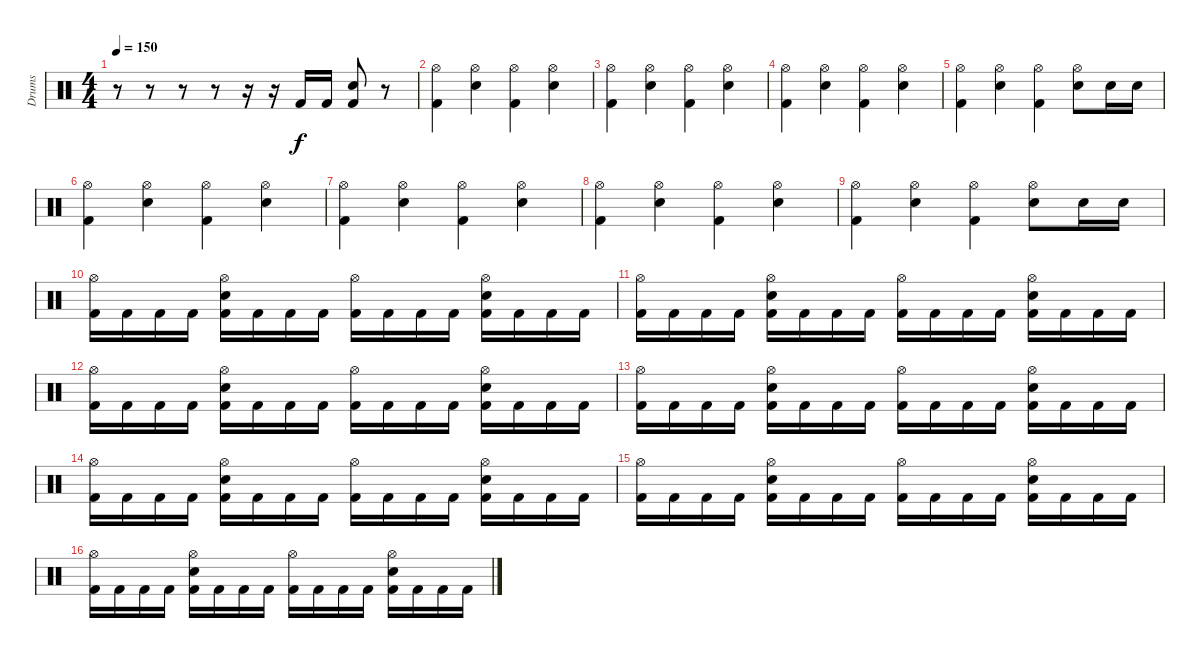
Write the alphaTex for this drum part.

\track ("Drums" "Drums") {instrument percussion}
\staff {score}
\articulation defaults
\ts (4 4)
\tempo 150
\clef neutral
\ks c
r.8{dy f} r.8 r.8 r.8 r.16 r.16 "Kick (hit) 2".16 "Kick (hit) 2".16 ("Snare (hit) 2" "Kick (hit) 2").8 r.8 |
("Hi-Hat (open)" "Kick (hit) 2").4 ("Hi-Hat (open)" "Snare (hit) 2").4 ("Hi-Hat (open)" "Kick (hit) 2").4 ("Hi-Hat (open)" "Snare (hit) 2").4 |
("Hi-Hat (open)" "Kick (hit) 2").4 ("Hi-Hat (open)" "Snare (hit) 2").4 ("Hi-Hat (open)" "Kick (hit) 2").4 ("Hi-Hat (open)" "Snare (hit) 2").4 |
("Hi-Hat (open)" "Kick (hit) 2").4 ("Hi-Hat (open)" "Snare (hit) 2").4 ("Hi-Hat (open)" "Kick (hit) 2").4 ("Hi-Hat (open)" "Snare (hit) 2").4 |
("Hi-Hat (open)" "Kick (hit) 2").4 ("Hi-Hat (open)" "Snare (hit) 2").4 ("Hi-Hat (open)" "Kick (hit) 2").4 ("Hi-Hat (open)" "Snare (hit) 2").8 "Snare (hit) 2".16 "Snare (hit) 2".16 |
("Hi-Hat (open)" "Kick (hit) 2").4 ("Hi-Hat (open)" "Snare (hit) 2").4 ("Hi-Hat (open)" "Kick (hit) 2").4 ("Hi-Hat (open)" "Snare (hit) 2").4 |
("Hi-Hat (open)" "Kick (hit) 2").4 ("Hi-Hat (open)" "Snare (hit) 2").4 ("Hi-Hat (open)" "Kick (hit) 2").4 ("Hi-Hat (open)" "Snare (hit) 2").4 |
("Hi-Hat (open)" "Kick (hit) 2").4 ("Hi-Hat (open)" "Snare (hit) 2").4 ("Hi-Hat (open)" "Kick (hit) 2").4 ("Hi-Hat (open)" "Snare (hit) 2").4 |
("Hi-Hat (open)" "Kick (hit) 2").4 ("Hi-Hat (open)" "Snare (hit) 2").4 ("Hi-Hat (open)" "Kick (hit) 2").4 ("Hi-Hat (open)" "Snare (hit) 2").8 "Snare (hit) 2".16 "Snare (hit) 2".16 |
("Hi-Hat (open)" "Kick (hit) 2").16 "Kick (hit) 2".16 "Kick (hit) 2".16 "Kick (hit) 2".16 ("Snare (hit) 2" "Hi-Hat (open)" "Kick (hit) 2").16 "Kick (hit) 2".16 "Kick (hit) 2".16 "Kick (hit) 2".16 ("Hi-Hat (open)" "Kick (hit) 2").16 "Kick (hit) 2".16 "Kick (hit) 2".16 "Kick (hit) 2".16 ("Snare (hit) 2" "Hi-Hat (open)" "Kick (hit) 2").16 "Kick (hit) 2".16 "Kick (hit) 2".16 "Kick (hit) 2".16 |
("Hi-Hat (open)" "Kick (hit) 2").16 "Kick (hit) 2".16 "Kick (hit) 2".16 "Kick (hit) 2".16 ("Snare (hit) 2" "Hi-Hat (open)" "Kick (hit) 2").16 "Kick (hit) 2".16 "Kick (hit) 2".16 "Kick (hit) 2".16 ("Hi-Hat (open)" "Kick (hit) 2").16 "Kick (hit) 2".16 "Kick (hit) 2".16 "Kick (hit) 2".16 ("Snare (hit) 2" "Hi-Hat (open)" "Kick (hit) 2").16 "Kick (hit) 2".16 "Kick (hit) 2".16 "Kick (hit) 2".16 |
("Hi-Hat (open)" "Kick (hit) 2").16 "Kick (hit) 2".16 "Kick (hit) 2".16 "Kick (hit) 2".16 ("Snare (hit) 2" "Hi-Hat (open)" "Kick (hit) 2").16 "Kick (hit) 2".16 "Kick (hit) 2".16 "Kick (hit) 2".16 ("Hi-Hat (open)" "Kick (hit) 2").16 "Kick (hit) 2".16 "Kick (hit) 2".16 "Kick (hit) 2".16 ("Snare (hit) 2" "Hi-Hat (open)" "Kick (hit) 2").16 "Kick (hit) 2".16 "Kick (hit) 2".16 "Kick (hit) 2".16 |
("Hi-Hat (open)" "Kick (hit) 2").16 "Kick (hit) 2".16 "Kick (hit) 2".16 "Kick (hit) 2".16 ("Snare (hit) 2" "Hi-Hat (open)" "Kick (hit) 2").16 "Kick (hit) 2".16 "Kick (hit) 2".16 "Kick (hit) 2".16 ("Hi-Hat (open)" "Kick (hit) 2").16 "Kick (hit) 2".16 "Kick (hit) 2".16 "Kick (hit) 2".16 ("Snare (hit) 2" "Hi-Hat (open)" "Kick (hit) 2").16 "Kick (hit) 2".16 "Kick (hit) 2".16 "Kick (hit) 2".16 |
("Hi-Hat (open)" "Kick (hit) 2").16 "Kick (hit) 2".16 "Kick (hit) 2".16 "Kick (hit) 2".16 ("Snare (hit) 2" "Hi-Hat (open)" "Kick (hit) 2").16 "Kick (hit) 2".16 "Kick (hit) 2".16 "Kick (hit) 2".16 ("Hi-Hat (open)" "Kick (hit) 2").16 "Kick (hit) 2".16 "Kick (hit) 2".16 "Kick (hit) 2".16 ("Snare (hit) 2" "Hi-Hat (open)" "Kick (hit) 2").16 "Kick (hit) 2".16 "Kick (hit) 2".16 "Kick (hit) 2".16 |
("Hi-Hat (open)" "Kick (hit) 2").16 "Kick (hit) 2".16 "Kick (hit) 2".16 "Kick (hit) 2".16 ("Snare (hit) 2" "Hi-Hat (open)" "Kick (hit) 2").16 "Kick (hit) 2".16 "Kick (hit) 2".16 "Kick (hit) 2".16 ("Hi-Hat (open)" "Kick (hit) 2").16 "Kick (hit) 2".16 "Kick (hit) 2".16 "Kick (hit) 2".16 ("Snare (hit) 2" "Hi-Hat (open)" "Kick (hit) 2").16 "Kick (hit) 2".16 "Kick (hit) 2".16 "Kick (hit) 2".16 |
("Hi-Hat (open)" "Kick (hit) 2").16 "Kick (hit) 2".16 "Kick (hit) 2".16 "Kick (hit) 2".16 ("Snare (hit) 2" "Hi-Hat (open)" "Kick (hit) 2").16 "Kick (hit) 2".16 "Kick (hit) 2".16 "Kick (hit) 2".16 ("Hi-Hat (open)" "Kick (hit) 2").16 "Kick (hit) 2".16 "Kick (hit) 2".16 "Kick (hit) 2".16 ("Snare (hit) 2" "Hi-Hat (open)" "Kick (hit) 2").16 "Kick (hit) 2".16 "Kick (hit) 2".16 "Kick (hit) 2".16
